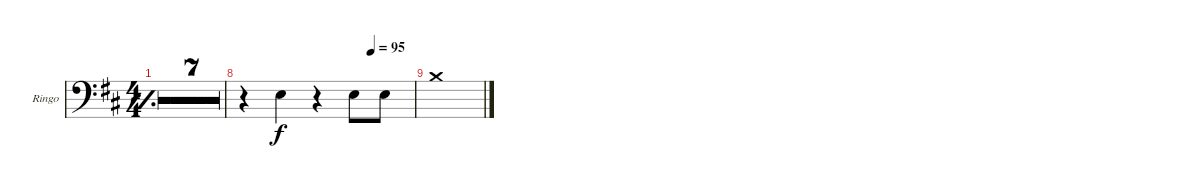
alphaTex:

\defaultSystemsLayout 4
\bracketExtendMode groupsimilarinstruments
\firstSystemTrackNameOrientation horizontal
\otherSystemsTrackNameOrientation horizontal
\track ("Ringo Starr - Arms" "Ringo") {multiBarRest instrument percussion}
\staff {score}
\articulation defaults
\ts (4 4)
\tempo 111
\clef f4
\simile simple
\ks d
|
|
|
|
|
|
|
\tempo (95 0.75)
r.4 "Snare (hit) 2".4 r.4 "Snare (hit) 2".8 "Snare (hit) 2".8 |
"Crash medium (hit)".1
